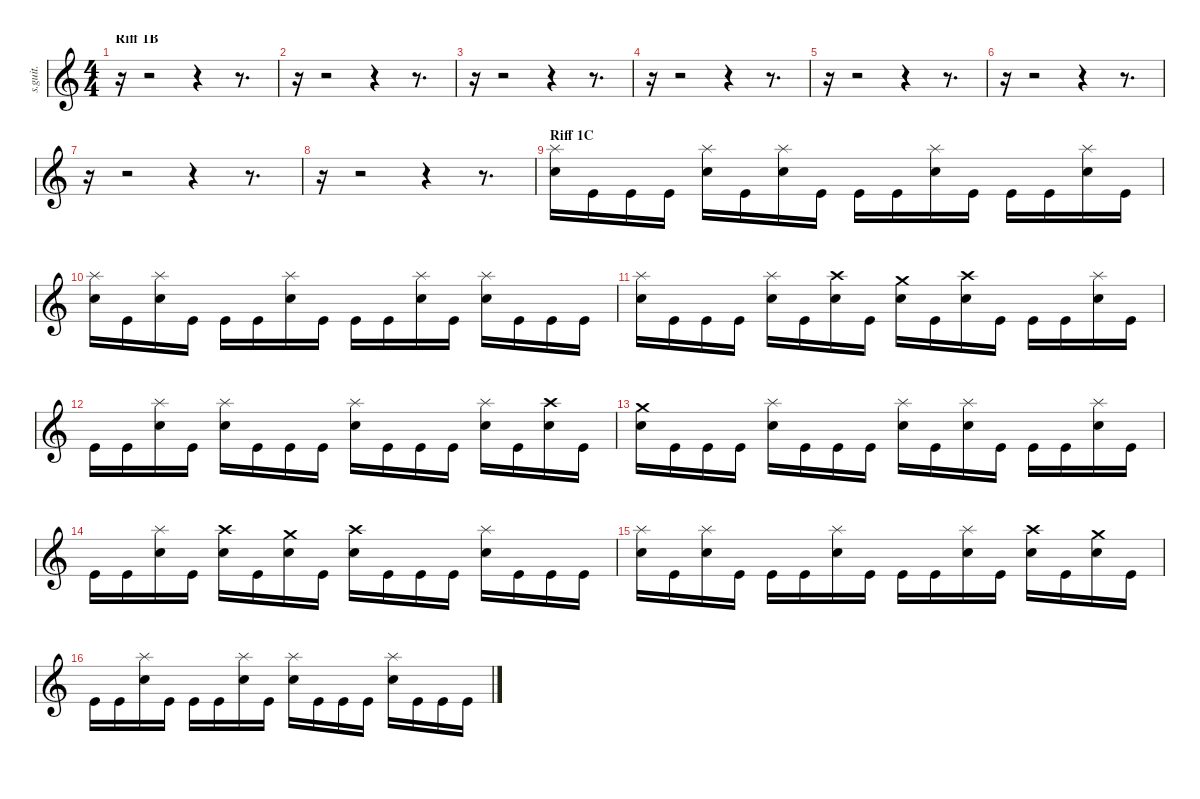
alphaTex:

\defaultSystemsLayout 4
\hideDynamics
\bracketExtendMode nobrackets
\track ("Drumkit" "s.guit.") {instrument percussion}
\staff {score}
\articulation defaults
\ts (4 4)
\section ("" "Riff 1B")
\tempo (133 hide)
\clef g2
\ks c
r.16{dy f} r.2 r.4 r.8{d} |
r.16 r.2 r.4 r.8{d} |
r.16 r.2 r.4 r.8{d} |
r.16 r.2 r.4 r.8{d} |
r.16 r.2 r.4 r.8{d} |
r.16 r.2 r.4 r.8{d} |
r.16 r.2 r.4 r.8{d} |
r.16 r.2 r.4 r.8{d} |
\section ("" "Riff 1C")
("Splash (hit)" "Snare (hit) 2").16{lyrics (0 "") lyrics (1 "") lyrics (2 "") lyrics (3 "") lyrics (4 "")} "Kick (hit)".16{lyrics (0 "") lyrics (1 "") lyrics (2 "") lyrics (3 "") lyrics (4 "")} "Kick (hit)".16{lyrics (0 "") lyrics (1 "") lyrics (2 "") lyrics (3 "") lyrics (4 "")} "Kick (hit)".16{lyrics (0 "") lyrics (1 "") lyrics (2 "") lyrics (3 "") lyrics (4 "")} ("Splash (hit)" "Snare (hit) 2").16{lyrics (0 "") lyrics (1 "") lyrics (2 "") lyrics (3 "") lyrics (4 "")} "Kick (hit)".16{lyrics (0 "") lyrics (1 "") lyrics (2 "") lyrics (3 "") lyrics (4 "")} ("Splash (hit)" "Snare (hit) 2").16{lyrics (0 "") lyrics (1 "") lyrics (2 "") lyrics (3 "") lyrics (4 "")} "Kick (hit)".16{lyrics (0 "") lyrics (1 "") lyrics (2 "") lyrics (3 "") lyrics (4 "")} "Kick (hit)".16{lyrics (0 "") lyrics (1 "") lyrics (2 "") lyrics (3 "") lyrics (4 "")} "Kick (hit)".16{lyrics (0 "") lyrics (1 "") lyrics (2 "") lyrics (3 "") lyrics (4 "")} ("Splash (hit)" "Snare (hit) 2").16{lyrics (0 "") lyrics (1 "") lyrics (2 "") lyrics (3 "") lyrics (4 "")} "Kick (hit)".16{lyrics (0 "") lyrics (1 "") lyrics (2 "") lyrics (3 "") lyrics (4 "")} "Kick (hit)".16{lyrics (0 "") lyrics (1 "") lyrics (2 "") lyrics (3 "") lyrics (4 "")} "Kick (hit)".16{lyrics (0 "") lyrics (1 "") lyrics (2 "") lyrics (3 "") lyrics (4 "")} ("Splash (hit)" "Snare (hit) 2").16{lyrics (0 "") lyrics (1 "") lyrics (2 "") lyrics (3 "") lyrics (4 "")} "Kick (hit)".16{lyrics (0 "") lyrics (1 "") lyrics (2 "") lyrics (3 "") lyrics (4 "")} |
("Splash (hit)" "Snare (hit) 2").16{lyrics (0 "") lyrics (1 "") lyrics (2 "") lyrics (3 "") lyrics (4 "")} "Kick (hit)".16{lyrics (0 "") lyrics (1 "") lyrics (2 "") lyrics (3 "") lyrics (4 "")} ("Splash (hit)" "Snare (hit) 2").16{lyrics (0 "") lyrics (1 "") lyrics (2 "") lyrics (3 "") lyrics (4 "")} "Kick (hit)".16{lyrics (0 "") lyrics (1 "") lyrics (2 "") lyrics (3 "") lyrics (4 "")} "Kick (hit)".16{lyrics (0 "") lyrics (1 "") lyrics (2 "") lyrics (3 "") lyrics (4 "")} "Kick (hit)".16{lyrics (0 "") lyrics (1 "") lyrics (2 "") lyrics (3 "") lyrics (4 "")} ("Splash (hit)" "Snare (hit) 2").16{lyrics (0 "") lyrics (1 "") lyrics (2 "") lyrics (3 "") lyrics (4 "")} "Kick (hit)".16{lyrics (0 "") lyrics (1 "") lyrics (2 "") lyrics (3 "") lyrics (4 "")} "Kick (hit)".16{lyrics (0 "") lyrics (1 "") lyrics (2 "") lyrics (3 "") lyrics (4 "")} "Kick (hit)".16{lyrics (0 "") lyrics (1 "") lyrics (2 "") lyrics (3 "") lyrics (4 "")} ("Splash (hit)" "Snare (hit) 2").16{lyrics (0 "") lyrics (1 "") lyrics (2 "") lyrics (3 "") lyrics (4 "")} "Kick (hit)".16{lyrics (0 "") lyrics (1 "") lyrics (2 "") lyrics (3 "") lyrics (4 "")} ("Splash (hit)" "Snare (hit) 2").16{lyrics (0 "") lyrics (1 "") lyrics (2 "") lyrics (3 "") lyrics (4 "")} "Kick (hit)".16{lyrics (0 "") lyrics (1 "") lyrics (2 "") lyrics (3 "") lyrics (4 "")} "Kick (hit)".16{lyrics (0 "") lyrics (1 "") lyrics (2 "") lyrics (3 "") lyrics (4 "")} "Kick (hit)".16{lyrics (0 "") lyrics (1 "") lyrics (2 "") lyrics (3 "") lyrics (4 "")} |
("Splash (hit)" "Snare (hit) 2").16{lyrics (0 "") lyrics (1 "") lyrics (2 "") lyrics (3 "") lyrics (4 "")} "Kick (hit)".16{lyrics (0 "") lyrics (1 "") lyrics (2 "") lyrics (3 "") lyrics (4 "")} "Kick (hit)".16{lyrics (0 "") lyrics (1 "") lyrics (2 "") lyrics (3 "") lyrics (4 "")} "Kick (hit)".16{lyrics (0 "") lyrics (1 "") lyrics (2 "") lyrics (3 "") lyrics (4 "")} ("Splash (hit)" "Snare (hit) 2").16{lyrics (0 "") lyrics (1 "") lyrics (2 "") lyrics (3 "") lyrics (4 "")} "Kick (hit)".16{lyrics (0 "") lyrics (1 "") lyrics (2 "") lyrics (3 "") lyrics (4 "")} ("Crash high (hit)" "Snare (hit) 2").16{lyrics (0 "") lyrics (1 "") lyrics (2 "") lyrics (3 "") lyrics (4 "")} "Kick (hit)".16{lyrics (0 "") lyrics (1 "") lyrics (2 "") lyrics (3 "") lyrics (4 "")} ("Crash medium (hit)" "Snare (hit) 2").16{lyrics (0 "") lyrics (1 "") lyrics (2 "") lyrics (3 "") lyrics (4 "")} "Kick (hit)".16{lyrics (0 "") lyrics (1 "") lyrics (2 "") lyrics (3 "") lyrics (4 "")} ("Crash high (hit)" "Snare (hit) 2").16{lyrics (0 "") lyrics (1 "") lyrics (2 "") lyrics (3 "") lyrics (4 "")} "Kick (hit)".16{lyrics (0 "") lyrics (1 "") lyrics (2 "") lyrics (3 "") lyrics (4 "")} "Kick (hit)".16{lyrics (0 "") lyrics (1 "") lyrics (2 "") lyrics (3 "") lyrics (4 "")} "Kick (hit)".16{lyrics (0 "") lyrics (1 "") lyrics (2 "") lyrics (3 "") lyrics (4 "")} ("Splash (hit)" "Snare (hit) 2").16{lyrics (0 "") lyrics (1 "") lyrics (2 "") lyrics (3 "") lyrics (4 "")} "Kick (hit)".16{lyrics (0 "") lyrics (1 "") lyrics (2 "") lyrics (3 "") lyrics (4 "")} |
"Kick (hit)".16{lyrics (0 "") lyrics (1 "") lyrics (2 "") lyrics (3 "") lyrics (4 "")} "Kick (hit)".16{lyrics (0 "") lyrics (1 "") lyrics (2 "") lyrics (3 "") lyrics (4 "")} ("Splash (hit)" "Snare (hit) 2").16{lyrics (0 "") lyrics (1 "") lyrics (2 "") lyrics (3 "") lyrics (4 "")} "Kick (hit)".16{lyrics (0 "") lyrics (1 "") lyrics (2 "") lyrics (3 "") lyrics (4 "")} ("Splash (hit)" "Snare (hit) 2").16{lyrics (0 "") lyrics (1 "") lyrics (2 "") lyrics (3 "") lyrics (4 "")} "Kick (hit)".16{lyrics (0 "") lyrics (1 "") lyrics (2 "") lyrics (3 "") lyrics (4 "")} "Kick (hit)".16{lyrics (0 "") lyrics (1 "") lyrics (2 "") lyrics (3 "") lyrics (4 "")} "Kick (hit)".16{lyrics (0 "") lyrics (1 "") lyrics (2 "") lyrics (3 "") lyrics (4 "")} ("Splash (hit)" "Snare (hit) 2").16{lyrics (0 "") lyrics (1 "") lyrics (2 "") lyrics (3 "") lyrics (4 "")} "Kick (hit)".16{lyrics (0 "") lyrics (1 "") lyrics (2 "") lyrics (3 "") lyrics (4 "")} "Kick (hit)".16{lyrics (0 "") lyrics (1 "") lyrics (2 "") lyrics (3 "") lyrics (4 "")} "Kick (hit)".16{lyrics (0 "") lyrics (1 "") lyrics (2 "") lyrics (3 "") lyrics (4 "")} ("Splash (hit)" "Snare (hit) 2").16{lyrics (0 "") lyrics (1 "") lyrics (2 "") lyrics (3 "") lyrics (4 "")} "Kick (hit)".16{lyrics (0 "") lyrics (1 "") lyrics (2 "") lyrics (3 "") lyrics (4 "")} ("Crash high (hit)" "Snare (hit) 2").16{lyrics (0 "") lyrics (1 "") lyrics (2 "") lyrics (3 "") lyrics (4 "")} "Kick (hit)".16{lyrics (0 "") lyrics (1 "") lyrics (2 "") lyrics (3 "") lyrics (4 "")} |
("Crash medium (hit)" "Snare (hit) 2").16{lyrics (0 "") lyrics (1 "") lyrics (2 "") lyrics (3 "") lyrics (4 "")} "Kick (hit)".16{lyrics (0 "") lyrics (1 "") lyrics (2 "") lyrics (3 "") lyrics (4 "")} "Kick (hit)".16{lyrics (0 "") lyrics (1 "") lyrics (2 "") lyrics (3 "") lyrics (4 "")} "Kick (hit)".16{lyrics (0 "") lyrics (1 "") lyrics (2 "") lyrics (3 "") lyrics (4 "")} ("Splash (hit)" "Snare (hit) 2").16{lyrics (0 "") lyrics (1 "") lyrics (2 "") lyrics (3 "") lyrics (4 "")} "Kick (hit)".16{lyrics (0 "") lyrics (1 "") lyrics (2 "") lyrics (3 "") lyrics (4 "")} "Kick (hit)".16{lyrics (0 "") lyrics (1 "") lyrics (2 "") lyrics (3 "") lyrics (4 "")} "Kick (hit)".16{lyrics (0 "") lyrics (1 "") lyrics (2 "") lyrics (3 "") lyrics (4 "")} ("Splash (hit)" "Snare (hit) 2").16{lyrics (0 "") lyrics (1 "") lyrics (2 "") lyrics (3 "") lyrics (4 "")} "Kick (hit)".16{lyrics (0 "") lyrics (1 "") lyrics (2 "") lyrics (3 "") lyrics (4 "")} ("Splash (hit)" "Snare (hit) 2").16{lyrics (0 "") lyrics (1 "") lyrics (2 "") lyrics (3 "") lyrics (4 "")} "Kick (hit)".16{lyrics (0 "") lyrics (1 "") lyrics (2 "") lyrics (3 "") lyrics (4 "")} "Kick (hit)".16{lyrics (0 "") lyrics (1 "") lyrics (2 "") lyrics (3 "") lyrics (4 "")} "Kick (hit)".16{lyrics (0 "") lyrics (1 "") lyrics (2 "") lyrics (3 "") lyrics (4 "")} ("Splash (hit)" "Snare (hit) 2").16{lyrics (0 "") lyrics (1 "") lyrics (2 "") lyrics (3 "") lyrics (4 "")} "Kick (hit)".16{lyrics (0 "") lyrics (1 "") lyrics (2 "") lyrics (3 "") lyrics (4 "")} |
"Kick (hit)".16{lyrics (0 "") lyrics (1 "") lyrics (2 "") lyrics (3 "") lyrics (4 "")} "Kick (hit)".16{lyrics (0 "") lyrics (1 "") lyrics (2 "") lyrics (3 "") lyrics (4 "")} ("Splash (hit)" "Snare (hit) 2").16{lyrics (0 "") lyrics (1 "") lyrics (2 "") lyrics (3 "") lyrics (4 "")} "Kick (hit)".16{lyrics (0 "") lyrics (1 "") lyrics (2 "") lyrics (3 "") lyrics (4 "")} ("Crash high (hit)" "Snare (hit) 2").16{lyrics (0 "") lyrics (1 "") lyrics (2 "") lyrics (3 "") lyrics (4 "")} "Kick (hit)".16{lyrics (0 "") lyrics (1 "") lyrics (2 "") lyrics (3 "") lyrics (4 "")} ("Crash medium (hit)" "Snare (hit) 2").16{lyrics (0 "") lyrics (1 "") lyrics (2 "") lyrics (3 "") lyrics (4 "")} "Kick (hit)".16{lyrics (0 "") lyrics (1 "") lyrics (2 "") lyrics (3 "") lyrics (4 "")} ("Crash high (hit)" "Snare (hit) 2").16{lyrics (0 "") lyrics (1 "") lyrics (2 "") lyrics (3 "") lyrics (4 "")} "Kick (hit)".16{lyrics (0 "") lyrics (1 "") lyrics (2 "") lyrics (3 "") lyrics (4 "")} "Kick (hit)".16{lyrics (0 "") lyrics (1 "") lyrics (2 "") lyrics (3 "") lyrics (4 "")} "Kick (hit)".16{lyrics (0 "") lyrics (1 "") lyrics (2 "") lyrics (3 "") lyrics (4 "")} ("Splash (hit)" "Snare (hit) 2").16{lyrics (0 "") lyrics (1 "") lyrics (2 "") lyrics (3 "") lyrics (4 "")} "Kick (hit)".16{lyrics (0 "") lyrics (1 "") lyrics (2 "") lyrics (3 "") lyrics (4 "")} "Kick (hit)".16{lyrics (0 "") lyrics (1 "") lyrics (2 "") lyrics (3 "") lyrics (4 "")} "Kick (hit)".16{lyrics (0 "") lyrics (1 "") lyrics (2 "") lyrics (3 "") lyrics (4 "")} |
("Splash (hit)" "Snare (hit) 2").16{lyrics (0 "") lyrics (1 "") lyrics (2 "") lyrics (3 "") lyrics (4 "")} "Kick (hit)".16{lyrics (0 "") lyrics (1 "") lyrics (2 "") lyrics (3 "") lyrics (4 "")} ("Splash (hit)" "Snare (hit) 2").16{lyrics (0 "") lyrics (1 "") lyrics (2 "") lyrics (3 "") lyrics (4 "")} "Kick (hit)".16{lyrics (0 "") lyrics (1 "") lyrics (2 "") lyrics (3 "") lyrics (4 "")} "Kick (hit)".16{lyrics (0 "") lyrics (1 "") lyrics (2 "") lyrics (3 "") lyrics (4 "")} "Kick (hit)".16{lyrics (0 "") lyrics (1 "") lyrics (2 "") lyrics (3 "") lyrics (4 "")} ("Splash (hit)" "Snare (hit) 2").16{lyrics (0 "") lyrics (1 "") lyrics (2 "") lyrics (3 "") lyrics (4 "")} "Kick (hit)".16{lyrics (0 "") lyrics (1 "") lyrics (2 "") lyrics (3 "") lyrics (4 "")} "Kick (hit)".16{lyrics (0 "") lyrics (1 "") lyrics (2 "") lyrics (3 "") lyrics (4 "")} "Kick (hit)".16{lyrics (0 "") lyrics (1 "") lyrics (2 "") lyrics (3 "") lyrics (4 "")} ("Splash (hit)" "Snare (hit) 2").16{lyrics (0 "") lyrics (1 "") lyrics (2 "") lyrics (3 "") lyrics (4 "")} "Kick (hit)".16{lyrics (0 "") lyrics (1 "") lyrics (2 "") lyrics (3 "") lyrics (4 "")} ("Crash high (hit)" "Snare (hit) 2").16{lyrics (0 "") lyrics (1 "") lyrics (2 "") lyrics (3 "") lyrics (4 "")} "Kick (hit)".16{lyrics (0 "") lyrics (1 "") lyrics (2 "") lyrics (3 "") lyrics (4 "")} ("Crash medium (hit)" "Snare (hit) 2").16{lyrics (0 "") lyrics (1 "") lyrics (2 "") lyrics (3 "") lyrics (4 "")} "Kick (hit)".16{lyrics (0 "") lyrics (1 "") lyrics (2 "") lyrics (3 "") lyrics (4 "")} |
"Kick (hit)".16{lyrics (0 "") lyrics (1 "") lyrics (2 "") lyrics (3 "") lyrics (4 "")} "Kick (hit)".16{lyrics (0 "") lyrics (1 "") lyrics (2 "") lyrics (3 "") lyrics (4 "")} ("Splash (hit)" "Snare (hit) 2").16{lyrics (0 "") lyrics (1 "") lyrics (2 "") lyrics (3 "") lyrics (4 "")} "Kick (hit)".16{lyrics (0 "") lyrics (1 "") lyrics (2 "") lyrics (3 "") lyrics (4 "")} "Kick (hit)".16{lyrics (0 "") lyrics (1 "") lyrics (2 "") lyrics (3 "") lyrics (4 "")} "Kick (hit)".16{lyrics (0 "") lyrics (1 "") lyrics (2 "") lyrics (3 "") lyrics (4 "")} ("Splash (hit)" "Snare (hit) 2").16{lyrics (0 "") lyrics (1 "") lyrics (2 "") lyrics (3 "") lyrics (4 "")} "Kick (hit)".16{lyrics (0 "") lyrics (1 "") lyrics (2 "") lyrics (3 "") lyrics (4 "")} ("Splash (hit)" "Snare (hit) 2").16{lyrics (0 "") lyrics (1 "") lyrics (2 "") lyrics (3 "") lyrics (4 "")} "Kick (hit)".16{lyrics (0 "") lyrics (1 "") lyrics (2 "") lyrics (3 "") lyrics (4 "")} "Kick (hit)".16{lyrics (0 "") lyrics (1 "") lyrics (2 "") lyrics (3 "") lyrics (4 "")} "Kick (hit)".16{lyrics (0 "") lyrics (1 "") lyrics (2 "") lyrics (3 "") lyrics (4 "")} ("Splash (hit)" "Snare (hit) 2").16{lyrics (0 "") lyrics (1 "") lyrics (2 "") lyrics (3 "") lyrics (4 "")} "Kick (hit)".16{lyrics (0 "") lyrics (1 "") lyrics (2 "") lyrics (3 "") lyrics (4 "")} "Kick (hit)".16{lyrics (0 "") lyrics (1 "") lyrics (2 "") lyrics (3 "") lyrics (4 "")} "Kick (hit)".16{lyrics (0 "") lyrics (1 "") lyrics (2 "") lyrics (3 "") lyrics (4 "")}
